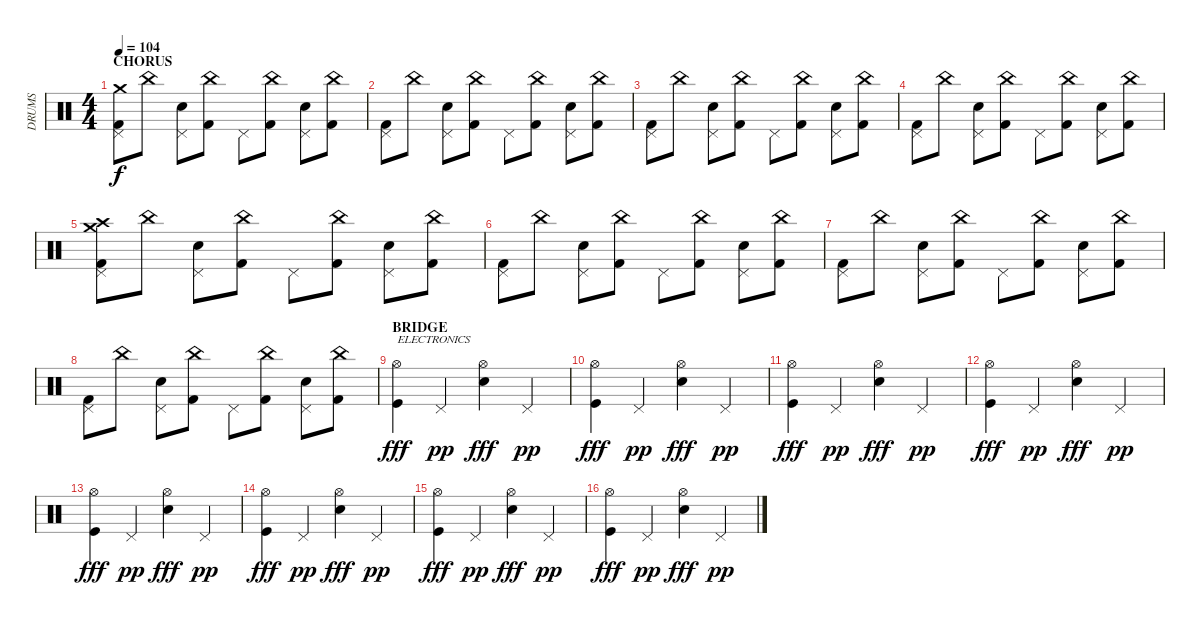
\track ("DRUMS" "DRUMS") {instrument percussion}
\staff {score}
\articulation defaults
\ts (4 4)
\section ("" "CHORUS")
\tempo 104
\clef neutral
\ks c
("Crash medium (hit)" "Pedal Hi-Hat (hit)" "Kick (hit) 2").8{dy f} "China (hit)".8 ("Electric Snare (hit)" "Pedal Hi-Hat (hit)").8 ("China (hit)" "Kick (hit) 2").8 "Pedal Hi-Hat (hit)".8 ("China (hit)" "Kick (hit) 2").8 ("Electric Snare (hit)" "Pedal Hi-Hat (hit)").8 ("China (hit)" "Kick (hit) 2").8 |
("Pedal Hi-Hat (hit)" "Kick (hit) 2").8 "China (hit)".8 ("Electric Snare (hit)" "Pedal Hi-Hat (hit)").8 ("China (hit)" "Kick (hit) 2").8 "Pedal Hi-Hat (hit)".8 ("China (hit)" "Kick (hit) 2").8 ("Electric Snare (hit)" "Pedal Hi-Hat (hit)").8 ("China (hit)" "Kick (hit) 2").8 |
("Pedal Hi-Hat (hit)" "Kick (hit) 2").8 "China (hit)".8 ("Electric Snare (hit)" "Pedal Hi-Hat (hit)").8 ("China (hit)" "Kick (hit) 2").8 "Pedal Hi-Hat (hit)".8 ("China (hit)" "Kick (hit) 2").8 ("Electric Snare (hit)" "Pedal Hi-Hat (hit)").8 ("China (hit)" "Kick (hit) 2").8 |
("Pedal Hi-Hat (hit)" "Kick (hit) 2").8 "China (hit)".8 ("Electric Snare (hit)" "Pedal Hi-Hat (hit)").8 ("China (hit)" "Kick (hit) 2").8 "Pedal Hi-Hat (hit)".8 ("China (hit)" "Kick (hit) 2").8 ("Electric Snare (hit)" "Pedal Hi-Hat (hit)").8 ("China (hit)" "Kick (hit) 2").8 |
("Crash medium (hit)" "Crash high (hit)" "Pedal Hi-Hat (hit)" "Kick (hit) 2").8 "China (hit)".8 ("Electric Snare (hit)" "Pedal Hi-Hat (hit)").8 ("China (hit)" "Kick (hit) 2").8 "Pedal Hi-Hat (hit)".8 ("China (hit)" "Kick (hit) 2").8 ("Electric Snare (hit)" "Pedal Hi-Hat (hit)").8 ("China (hit)" "Kick (hit) 2").8 |
("Pedal Hi-Hat (hit)" "Kick (hit) 2").8 "China (hit)".8 ("Electric Snare (hit)" "Pedal Hi-Hat (hit)").8 ("China (hit)" "Kick (hit) 2").8 "Pedal Hi-Hat (hit)".8 ("China (hit)" "Kick (hit) 2").8 ("Electric Snare (hit)" "Pedal Hi-Hat (hit)").8 ("China (hit)" "Kick (hit) 2").8 |
("Pedal Hi-Hat (hit)" "Kick (hit) 2").8 "China (hit)".8 ("Electric Snare (hit)" "Pedal Hi-Hat (hit)").8 ("China (hit)" "Kick (hit) 2").8 "Pedal Hi-Hat (hit)".8 ("China (hit)" "Kick (hit) 2").8 ("Electric Snare (hit)" "Pedal Hi-Hat (hit)").8 ("China (hit)" "Kick (hit) 2").8 |
("Pedal Hi-Hat (hit)" "Kick (hit) 2").8 "China (hit)".8 ("Electric Snare (hit)" "Pedal Hi-Hat (hit)").8 ("China (hit)" "Kick (hit) 2").8 "Pedal Hi-Hat (hit)".8 ("China (hit)" "Kick (hit) 2").8 ("Electric Snare (hit)" "Pedal Hi-Hat (hit)").8 ("China (hit)" "Kick (hit) 2").8 |
\section ("" "BRIDGE")
("Hi-Hat (open)" "Kick (hit)").4{txt "ELECTRONICS" dy fff} "Pedal Hi-Hat (hit)".4{dy pp} ("Hi-Hat (open)" "Snare (hit) 2").4{dy fff} "Pedal Hi-Hat (hit)".4{dy pp} |
("Hi-Hat (open)" "Kick (hit)").4{dy fff} "Pedal Hi-Hat (hit)".4{dy pp} ("Hi-Hat (open)" "Snare (hit) 2").4{dy fff} "Pedal Hi-Hat (hit)".4{dy pp} |
("Hi-Hat (open)" "Kick (hit)").4{dy fff} "Pedal Hi-Hat (hit)".4{dy pp} ("Hi-Hat (open)" "Snare (hit) 2").4{dy fff} "Pedal Hi-Hat (hit)".4{dy pp} |
("Hi-Hat (open)" "Kick (hit)").4{dy fff} "Pedal Hi-Hat (hit)".4{dy pp} ("Hi-Hat (open)" "Snare (hit) 2").4{dy fff} "Pedal Hi-Hat (hit)".4{dy pp} |
("Hi-Hat (open)" "Kick (hit)").4{dy fff} "Pedal Hi-Hat (hit)".4{dy pp} ("Hi-Hat (open)" "Snare (hit) 2").4{dy fff} "Pedal Hi-Hat (hit)".4{dy pp} |
("Hi-Hat (open)" "Kick (hit)").4{dy fff} "Pedal Hi-Hat (hit)".4{dy pp} ("Hi-Hat (open)" "Snare (hit) 2").4{dy fff} "Pedal Hi-Hat (hit)".4{dy pp} |
("Hi-Hat (open)" "Kick (hit)").4{dy fff} "Pedal Hi-Hat (hit)".4{dy pp} ("Hi-Hat (open)" "Snare (hit) 2").4{dy fff} "Pedal Hi-Hat (hit)".4{dy pp} |
("Hi-Hat (open)" "Kick (hit)").4{dy fff} "Pedal Hi-Hat (hit)".4{dy pp} ("Hi-Hat (open)" "Snare (hit) 2").4{dy fff} "Pedal Hi-Hat (hit)".4{dy pp}
